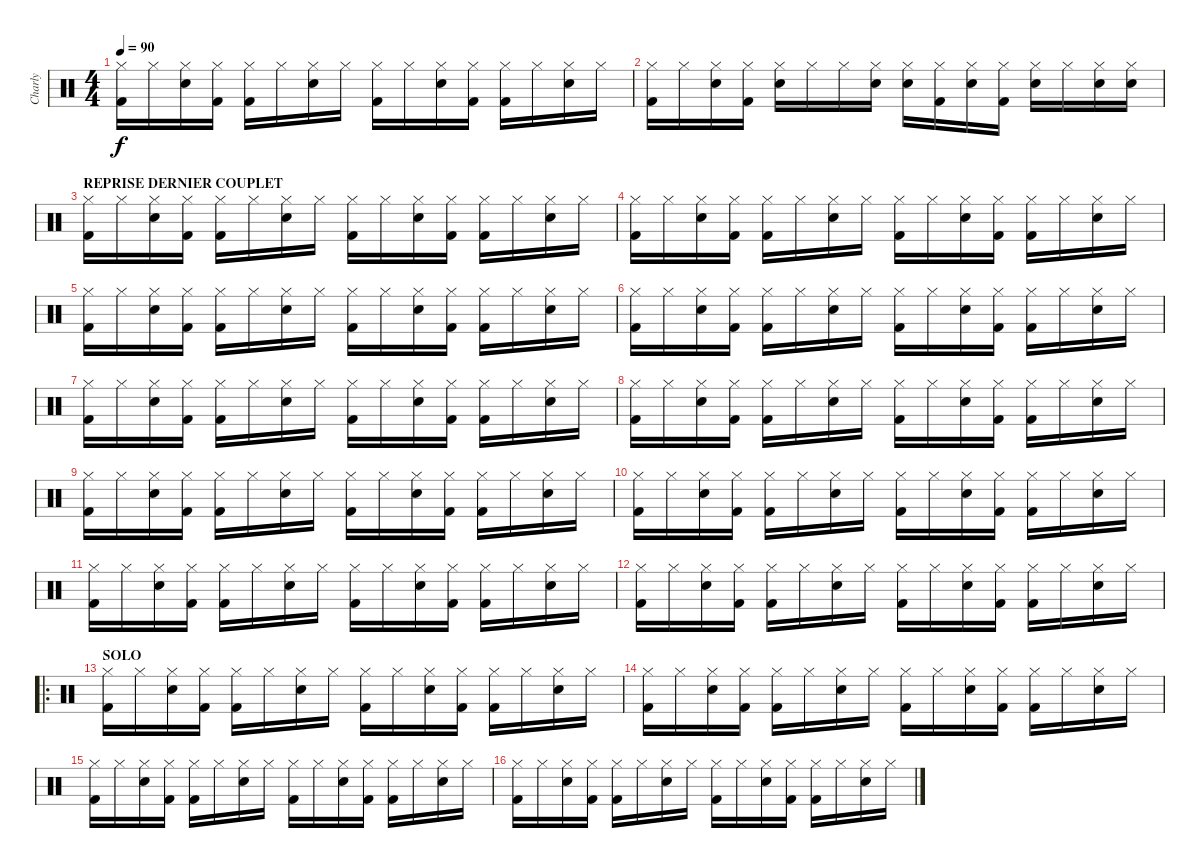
\track ("Charly" "Charly") {instrument percussion}
\staff {score}
\articulation defaults
\ts (4 4)
\tempo 90
\clef neutral
\ks c
("Hi-Hat (closed)" "Kick (hit) 2").16{dy f} "Hi-Hat (closed)".16 ("Hi-Hat (closed)" "Electric Snare (hit)").16 ("Hi-Hat (closed)" "Kick (hit) 2").16 ("Hi-Hat (closed)" "Kick (hit) 2").16 "Hi-Hat (closed)".16 ("Hi-Hat (closed)" "Electric Snare (hit)").16 "Hi-Hat (closed)".16 ("Hi-Hat (closed)" "Kick (hit) 2").16 "Hi-Hat (closed)".16 ("Hi-Hat (closed)" "Electric Snare (hit)").16 ("Hi-Hat (closed)" "Kick (hit) 2").16 ("Hi-Hat (closed)" "Kick (hit) 2").16 "Hi-Hat (closed)".16 ("Hi-Hat (closed)" "Electric Snare (hit)").16 "Hi-Hat (closed)".16 |
("Hi-Hat (closed)" "Kick (hit) 2").16 "Hi-Hat (closed)".16 ("Hi-Hat (closed)" "Electric Snare (hit)").16 ("Hi-Hat (closed)" "Kick (hit) 2").16 ("Hi-Hat (closed)" "Electric Snare (hit)").16 "Hi-Hat (closed)".16 "Hi-Hat (closed)".16 ("Hi-Hat (closed)" "Electric Snare (hit)").16 ("Hi-Hat (closed)" "Electric Snare (hit)").16 ("Hi-Hat (closed)" "Kick (hit) 2").16 ("Hi-Hat (closed)" "Electric Snare (hit)").16 ("Hi-Hat (closed)" "Kick (hit) 2").16 ("Hi-Hat (closed)" "Electric Snare (hit)").16 "Hi-Hat (closed)".16 ("Hi-Hat (closed)" "Electric Snare (hit)").16 ("Hi-Hat (closed)" "Electric Snare (hit)").16 |
\section ("" "REPRISE DERNIER COUPLET")
("Hi-Hat (closed)" "Kick (hit) 2").16 "Hi-Hat (closed)".16 ("Hi-Hat (closed)" "Electric Snare (hit)").16 ("Hi-Hat (closed)" "Kick (hit) 2").16 ("Hi-Hat (closed)" "Kick (hit) 2").16 "Hi-Hat (closed)".16 ("Hi-Hat (closed)" "Electric Snare (hit)").16 "Hi-Hat (closed)".16 ("Hi-Hat (closed)" "Kick (hit) 2").16 "Hi-Hat (closed)".16 ("Hi-Hat (closed)" "Electric Snare (hit)").16 ("Hi-Hat (closed)" "Kick (hit) 2").16 ("Hi-Hat (closed)" "Kick (hit) 2").16 "Hi-Hat (closed)".16 ("Hi-Hat (closed)" "Electric Snare (hit)").16 "Hi-Hat (closed)".16 |
("Hi-Hat (closed)" "Kick (hit) 2").16 "Hi-Hat (closed)".16 ("Hi-Hat (closed)" "Electric Snare (hit)").16 ("Hi-Hat (closed)" "Kick (hit) 2").16 ("Hi-Hat (closed)" "Kick (hit) 2").16 "Hi-Hat (closed)".16 ("Hi-Hat (closed)" "Electric Snare (hit)").16 "Hi-Hat (closed)".16 ("Hi-Hat (closed)" "Kick (hit) 2").16 "Hi-Hat (closed)".16 ("Hi-Hat (closed)" "Electric Snare (hit)").16 ("Hi-Hat (closed)" "Kick (hit) 2").16 ("Hi-Hat (closed)" "Kick (hit) 2").16 "Hi-Hat (closed)".16 ("Hi-Hat (closed)" "Electric Snare (hit)").16 "Hi-Hat (closed)".16 |
("Hi-Hat (closed)" "Kick (hit) 2").16 "Hi-Hat (closed)".16 ("Hi-Hat (closed)" "Electric Snare (hit)").16 ("Hi-Hat (closed)" "Kick (hit) 2").16 ("Hi-Hat (closed)" "Kick (hit) 2").16 "Hi-Hat (closed)".16 ("Hi-Hat (closed)" "Electric Snare (hit)").16 "Hi-Hat (closed)".16 ("Hi-Hat (closed)" "Kick (hit) 2").16 "Hi-Hat (closed)".16 ("Hi-Hat (closed)" "Electric Snare (hit)").16 ("Hi-Hat (closed)" "Kick (hit) 2").16 ("Hi-Hat (closed)" "Kick (hit) 2").16 "Hi-Hat (closed)".16 ("Hi-Hat (closed)" "Electric Snare (hit)").16 "Hi-Hat (closed)".16 |
("Hi-Hat (closed)" "Kick (hit) 2").16 "Hi-Hat (closed)".16 ("Hi-Hat (closed)" "Electric Snare (hit)").16 ("Hi-Hat (closed)" "Kick (hit) 2").16 ("Hi-Hat (closed)" "Kick (hit) 2").16 "Hi-Hat (closed)".16 ("Hi-Hat (closed)" "Electric Snare (hit)").16 "Hi-Hat (closed)".16 ("Hi-Hat (closed)" "Kick (hit) 2").16 "Hi-Hat (closed)".16 ("Hi-Hat (closed)" "Electric Snare (hit)").16 ("Hi-Hat (closed)" "Kick (hit) 2").16 ("Hi-Hat (closed)" "Kick (hit) 2").16 "Hi-Hat (closed)".16 ("Hi-Hat (closed)" "Electric Snare (hit)").16 "Hi-Hat (closed)".16 |
("Hi-Hat (closed)" "Kick (hit) 2").16 "Hi-Hat (closed)".16 ("Hi-Hat (closed)" "Electric Snare (hit)").16 ("Hi-Hat (closed)" "Kick (hit) 2").16 ("Hi-Hat (closed)" "Kick (hit) 2").16 "Hi-Hat (closed)".16 ("Hi-Hat (closed)" "Electric Snare (hit)").16 "Hi-Hat (closed)".16 ("Hi-Hat (closed)" "Kick (hit) 2").16 "Hi-Hat (closed)".16 ("Hi-Hat (closed)" "Electric Snare (hit)").16 ("Hi-Hat (closed)" "Kick (hit) 2").16 ("Hi-Hat (closed)" "Kick (hit) 2").16 "Hi-Hat (closed)".16 ("Hi-Hat (closed)" "Electric Snare (hit)").16 "Hi-Hat (closed)".16 |
("Hi-Hat (closed)" "Kick (hit) 2").16 "Hi-Hat (closed)".16 ("Hi-Hat (closed)" "Electric Snare (hit)").16 ("Hi-Hat (closed)" "Kick (hit) 2").16 ("Hi-Hat (closed)" "Kick (hit) 2").16 "Hi-Hat (closed)".16 ("Hi-Hat (closed)" "Electric Snare (hit)").16 "Hi-Hat (closed)".16 ("Hi-Hat (closed)" "Kick (hit) 2").16 "Hi-Hat (closed)".16 ("Hi-Hat (closed)" "Electric Snare (hit)").16 ("Hi-Hat (closed)" "Kick (hit) 2").16 ("Hi-Hat (closed)" "Kick (hit) 2").16 "Hi-Hat (closed)".16 ("Hi-Hat (closed)" "Electric Snare (hit)").16 "Hi-Hat (closed)".16 |
("Hi-Hat (closed)" "Kick (hit) 2").16 "Hi-Hat (closed)".16 ("Hi-Hat (closed)" "Electric Snare (hit)").16 ("Hi-Hat (closed)" "Kick (hit) 2").16 ("Hi-Hat (closed)" "Kick (hit) 2").16 "Hi-Hat (closed)".16 ("Hi-Hat (closed)" "Electric Snare (hit)").16 "Hi-Hat (closed)".16 ("Hi-Hat (closed)" "Kick (hit) 2").16 "Hi-Hat (closed)".16 ("Hi-Hat (closed)" "Electric Snare (hit)").16 ("Hi-Hat (closed)" "Kick (hit) 2").16 ("Hi-Hat (closed)" "Kick (hit) 2").16 "Hi-Hat (closed)".16 ("Hi-Hat (closed)" "Electric Snare (hit)").16 "Hi-Hat (closed)".16 |
("Hi-Hat (closed)" "Kick (hit) 2").16 "Hi-Hat (closed)".16 ("Hi-Hat (closed)" "Electric Snare (hit)").16 ("Hi-Hat (closed)" "Kick (hit) 2").16 ("Hi-Hat (closed)" "Kick (hit) 2").16 "Hi-Hat (closed)".16 ("Hi-Hat (closed)" "Electric Snare (hit)").16 "Hi-Hat (closed)".16 ("Hi-Hat (closed)" "Kick (hit) 2").16 "Hi-Hat (closed)".16 ("Hi-Hat (closed)" "Electric Snare (hit)").16 ("Hi-Hat (closed)" "Kick (hit) 2").16 ("Hi-Hat (closed)" "Kick (hit) 2").16 "Hi-Hat (closed)".16 ("Hi-Hat (closed)" "Electric Snare (hit)").16 "Hi-Hat (closed)".16 |
("Hi-Hat (closed)" "Kick (hit) 2").16 "Hi-Hat (closed)".16 ("Hi-Hat (closed)" "Electric Snare (hit)").16 ("Hi-Hat (closed)" "Kick (hit) 2").16 ("Hi-Hat (closed)" "Kick (hit) 2").16 "Hi-Hat (closed)".16 ("Hi-Hat (closed)" "Electric Snare (hit)").16 "Hi-Hat (closed)".16 ("Hi-Hat (closed)" "Kick (hit) 2").16 "Hi-Hat (closed)".16 ("Hi-Hat (closed)" "Electric Snare (hit)").16 ("Hi-Hat (closed)" "Kick (hit) 2").16 ("Hi-Hat (closed)" "Kick (hit) 2").16 "Hi-Hat (closed)".16 ("Hi-Hat (closed)" "Electric Snare (hit)").16 "Hi-Hat (closed)".16 |
("Hi-Hat (closed)" "Kick (hit) 2").16 "Hi-Hat (closed)".16 ("Hi-Hat (closed)" "Electric Snare (hit)").16 ("Hi-Hat (closed)" "Kick (hit) 2").16 ("Hi-Hat (closed)" "Kick (hit) 2").16 "Hi-Hat (closed)".16 ("Hi-Hat (closed)" "Electric Snare (hit)").16 "Hi-Hat (closed)".16 ("Hi-Hat (closed)" "Kick (hit) 2").16 "Hi-Hat (closed)".16 ("Hi-Hat (closed)" "Electric Snare (hit)").16 ("Hi-Hat (closed)" "Kick (hit) 2").16 ("Hi-Hat (closed)" "Kick (hit) 2").16 "Hi-Hat (closed)".16 ("Hi-Hat (closed)" "Electric Snare (hit)").16 "Hi-Hat (closed)".16 |
\ro
\section ("" "SOLO")
("Hi-Hat (closed)" "Kick (hit) 2").16 "Hi-Hat (closed)".16 ("Hi-Hat (closed)" "Electric Snare (hit)").16 ("Hi-Hat (closed)" "Kick (hit) 2").16 ("Hi-Hat (closed)" "Kick (hit) 2").16 "Hi-Hat (closed)".16 ("Hi-Hat (closed)" "Electric Snare (hit)").16 "Hi-Hat (closed)".16 ("Hi-Hat (closed)" "Kick (hit) 2").16 "Hi-Hat (closed)".16 ("Hi-Hat (closed)" "Electric Snare (hit)").16 ("Hi-Hat (closed)" "Kick (hit) 2").16 ("Hi-Hat (closed)" "Kick (hit) 2").16 "Hi-Hat (closed)".16 ("Hi-Hat (closed)" "Electric Snare (hit)").16 "Hi-Hat (closed)".16 |
("Hi-Hat (closed)" "Kick (hit) 2").16 "Hi-Hat (closed)".16 ("Hi-Hat (closed)" "Electric Snare (hit)").16 ("Hi-Hat (closed)" "Kick (hit) 2").16 ("Hi-Hat (closed)" "Kick (hit) 2").16 "Hi-Hat (closed)".16 ("Hi-Hat (closed)" "Electric Snare (hit)").16 "Hi-Hat (closed)".16 ("Hi-Hat (closed)" "Kick (hit) 2").16 "Hi-Hat (closed)".16 ("Hi-Hat (closed)" "Electric Snare (hit)").16 ("Hi-Hat (closed)" "Kick (hit) 2").16 ("Hi-Hat (closed)" "Kick (hit) 2").16 "Hi-Hat (closed)".16 ("Hi-Hat (closed)" "Electric Snare (hit)").16 "Hi-Hat (closed)".16 |
("Hi-Hat (closed)" "Kick (hit) 2").16 "Hi-Hat (closed)".16 ("Hi-Hat (closed)" "Electric Snare (hit)").16 ("Hi-Hat (closed)" "Kick (hit) 2").16 ("Hi-Hat (closed)" "Kick (hit) 2").16 "Hi-Hat (closed)".16 ("Hi-Hat (closed)" "Electric Snare (hit)").16 "Hi-Hat (closed)".16 ("Hi-Hat (closed)" "Kick (hit) 2").16 "Hi-Hat (closed)".16 ("Hi-Hat (closed)" "Electric Snare (hit)").16 ("Hi-Hat (closed)" "Kick (hit) 2").16 ("Hi-Hat (closed)" "Kick (hit) 2").16 "Hi-Hat (closed)".16 ("Hi-Hat (closed)" "Electric Snare (hit)").16 "Hi-Hat (closed)".16 |
("Hi-Hat (closed)" "Kick (hit) 2").16 "Hi-Hat (closed)".16 ("Hi-Hat (closed)" "Electric Snare (hit)").16 ("Hi-Hat (closed)" "Kick (hit) 2").16 ("Hi-Hat (closed)" "Kick (hit) 2").16 "Hi-Hat (closed)".16 ("Hi-Hat (closed)" "Electric Snare (hit)").16 "Hi-Hat (closed)".16 ("Hi-Hat (closed)" "Kick (hit) 2").16 "Hi-Hat (closed)".16 ("Hi-Hat (closed)" "Electric Snare (hit)").16 ("Hi-Hat (closed)" "Kick (hit) 2").16 ("Hi-Hat (closed)" "Kick (hit) 2").16 "Hi-Hat (closed)".16 ("Hi-Hat (closed)" "Electric Snare (hit)").16 "Hi-Hat (closed)".16
